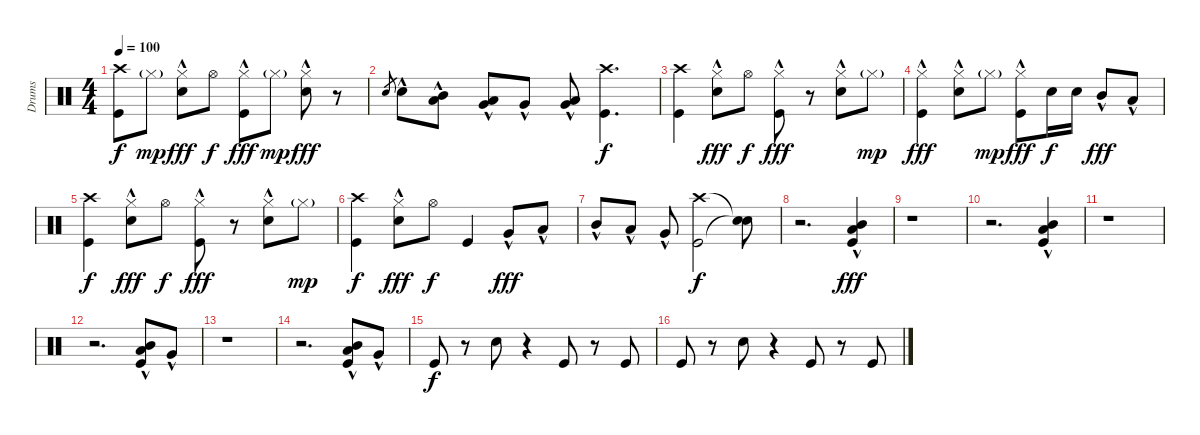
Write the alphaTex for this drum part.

\track ("Drums" "Drums") {instrument percussion}
\staff {score}
\articulation defaults
\ts (4 4)
\tempo 100
\clef neutral
\ks c
("Crash high (hit)" "Kick (hit)").8{dy f} "Hi-Hat (closed)"{g}.8{dy mp} ("Hi-Hat (closed)"{hac} "Snare (hit) 2").8{dy fff} "Hi-Hat (open)".8{dy f} ("Hi-Hat (closed)"{hac} "Kick (hit)").8{dy fff} "Hi-Hat (closed)"{g}.8{dy mp} ("Hi-Hat (closed)"{hac} "Snare (hit) 2").8{dy fff} r.8 |
"Snare (hit) 2".8{gr} "Snare (hit) 2"{hac}.8 ("Mid Tom (hit)"{hac} "Low Tom (hit)").8 ("Low Tom (hit)"{hac} "Very Low Tom (hit)").8 "Very Low Tom (hit)"{hac}.8 ("Low Tom (hit)"{hac} "Very Low Tom (hit)").8 ("Crash high (hit)" "Kick (hit)").4{d dy f} |
("Crash high (hit)" "Kick (hit)").4 ("Hi-Hat (closed)"{hac} "Snare (hit) 2").8{dy fff} "Hi-Hat (open)".8{dy f} ("Hi-Hat (closed)"{hac} "Kick (hit)").8{dy fff} r.8 ("Hi-Hat (closed)"{hac} "Snare (hit) 2").8 "Hi-Hat (closed)"{g}.8{dy mp} |
("Hi-Hat (closed)"{hac} "Kick (hit)").4{dy fff} ("Hi-Hat (closed)"{hac} "Snare (hit) 2").8 "Hi-Hat (closed)"{g}.8{dy mp} ("Hi-Hat (closed)"{hac} "Kick (hit)").8{dy fff} "Snare (hit) 2".16{dy f} "Snare (hit) 2".16 "Mid Tom (hit)"{hac}.8{dy fff} "Low Tom (hit)"{hac}.8 |
("Crash high (hit)" "Kick (hit)").4{dy f} ("Hi-Hat (closed)"{hac} "Snare (hit) 2").8{dy fff} "Hi-Hat (open)".8{dy f} ("Hi-Hat (closed)"{hac} "Kick (hit)").8{dy fff} r.8 ("Hi-Hat (closed)"{hac} "Snare (hit) 2").8 "Hi-Hat (closed)"{g}.8{dy mp} |
("Crash high (hit)" "Kick (hit)").4{dy f} ("Hi-Hat (closed)"{hac} "Snare (hit) 2").8{dy fff} "Hi-Hat (open)".8{dy f} "Kick (hit)".4 "Very Low Tom (hit)"{hac}.8{dy fff} "Low Tom (hit)"{hac}.8 |
"Mid Tom (hit)"{hac}.8 "Low Tom (hit)"{hac}.8 "Very Low Tom (hit)"{hac}.8 ("Crash high (hit)" "Kick (hit)").2{dy f} ("Snare (hit)"{t} "Snare (hit)"{t}).8 |
r.2{d} ("Mid Tom (hit)"{hac} "Low Tom (hit)"{hac} "Kick (hit)").4{dy fff} |
r.1 |
r.2{d} ("Mid Tom (hit)"{hac} "Low Tom (hit)"{hac} "Kick (hit)").4 |
r.1 |
r.2{d} ("Mid Tom (hit)" "Low Tom (hit)"{hac} "Kick (hit)").8 "Very Low Tom (hit)"{hac}.8 |
r.1 |
r.2{d} ("Mid Tom (hit)" "Low Tom (hit)"{hac} "Kick (hit)").8 "Very Low Tom (hit)"{hac}.8 |
"Kick (hit)".8{dy f} r.8 "Snare (hit) 2".8 r.4 "Kick (hit)".8 r.8 "Kick (hit)".8 |
"Kick (hit)".8 r.8 "Snare (hit) 2".8 r.4 "Kick (hit)".8 r.8 "Kick (hit)".8
